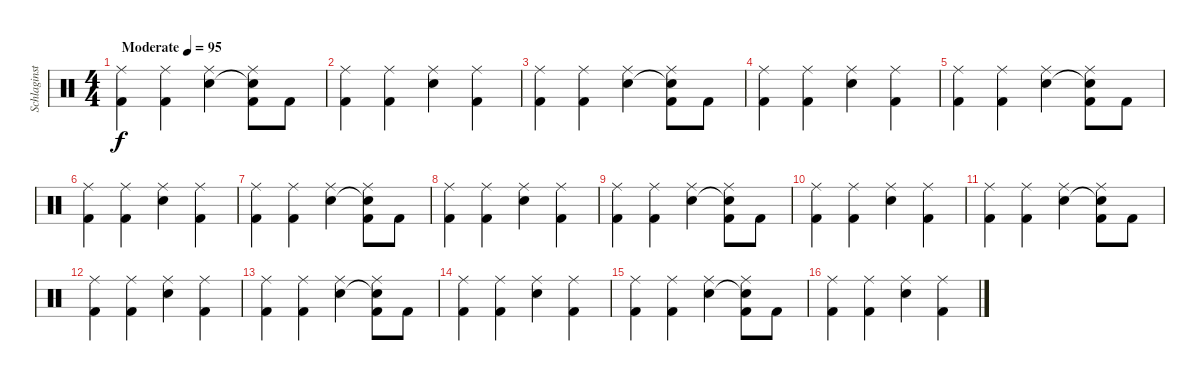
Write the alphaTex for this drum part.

\track ("Schlaginstrumente - Auswahl" "Schlaginst") {instrument percussion}
\staff {score}
\articulation defaults
\ts (4 4)
\tempo (95 "Moderate")
\clef neutral
\ks c
("Ride (middle)" "Kick (hit) 2").4{dy f} ("Ride (middle)" "Kick (hit) 2").4 ("Ride (middle)" "Electric Snare (hit)").4 ("Ride (middle)" "Snare (hit)"{t} "Kick (hit) 2").8 "Kick (hit) 2".8 |
("Ride (middle)" "Kick (hit) 2").4 ("Ride (middle)" "Kick (hit) 2").4 ("Ride (middle)" "Electric Snare (hit)").4 ("Ride (middle)" "Kick (hit) 2").4 |
("Ride (middle)" "Kick (hit) 2").4 ("Ride (middle)" "Kick (hit) 2").4 ("Ride (middle)" "Electric Snare (hit)").4 ("Ride (middle)" "Snare (hit)"{t} "Kick (hit) 2").8 "Kick (hit) 2".8 |
("Ride (middle)" "Kick (hit) 2").4 ("Ride (middle)" "Kick (hit) 2").4 ("Ride (middle)" "Electric Snare (hit)").4 ("Ride (middle)" "Kick (hit) 2").4 |
("Ride (middle)" "Kick (hit) 2").4 ("Ride (middle)" "Kick (hit) 2").4 ("Ride (middle)" "Electric Snare (hit)").4 ("Ride (middle)" "Snare (hit)"{t} "Kick (hit) 2").8 "Kick (hit) 2".8 |
("Ride (middle)" "Kick (hit) 2").4 ("Ride (middle)" "Kick (hit) 2").4 ("Ride (middle)" "Electric Snare (hit)").4 ("Ride (middle)" "Kick (hit) 2").4 |
("Ride (middle)" "Kick (hit) 2").4 ("Ride (middle)" "Kick (hit) 2").4 ("Ride (middle)" "Electric Snare (hit)").4 ("Ride (middle)" "Snare (hit)"{t} "Kick (hit) 2").8 "Kick (hit) 2".8 |
("Ride (middle)" "Kick (hit) 2").4 ("Ride (middle)" "Kick (hit) 2").4 ("Ride (middle)" "Electric Snare (hit)").4 ("Ride (middle)" "Kick (hit) 2").4 |
("Ride (middle)" "Kick (hit) 2").4 ("Ride (middle)" "Kick (hit) 2").4 ("Ride (middle)" "Electric Snare (hit)").4 ("Ride (middle)" "Snare (hit)"{t} "Kick (hit) 2").8 "Kick (hit) 2".8 |
("Ride (middle)" "Kick (hit) 2").4 ("Ride (middle)" "Kick (hit) 2").4 ("Ride (middle)" "Electric Snare (hit)").4 ("Ride (middle)" "Kick (hit) 2").4 |
("Ride (middle)" "Kick (hit) 2").4 ("Ride (middle)" "Kick (hit) 2").4 ("Ride (middle)" "Electric Snare (hit)").4 ("Ride (middle)" "Snare (hit)"{t} "Kick (hit) 2").8 "Kick (hit) 2".8 |
("Ride (middle)" "Kick (hit) 2").4 ("Ride (middle)" "Kick (hit) 2").4 ("Ride (middle)" "Electric Snare (hit)").4 ("Ride (middle)" "Kick (hit) 2").4 |
("Ride (middle)" "Kick (hit) 2").4 ("Ride (middle)" "Kick (hit) 2").4 ("Ride (middle)" "Electric Snare (hit)").4 ("Ride (middle)" "Snare (hit)"{t} "Kick (hit) 2").8 "Kick (hit) 2".8 |
("Ride (middle)" "Kick (hit) 2").4 ("Ride (middle)" "Kick (hit) 2").4 ("Ride (middle)" "Electric Snare (hit)").4 ("Ride (middle)" "Kick (hit) 2").4 |
("Ride (middle)" "Kick (hit) 2").4 ("Ride (middle)" "Kick (hit) 2").4 ("Ride (middle)" "Electric Snare (hit)").4 ("Ride (middle)" "Snare (hit)"{t} "Kick (hit) 2").8 "Kick (hit) 2".8 |
("Ride (middle)" "Kick (hit) 2").4 ("Ride (middle)" "Kick (hit) 2").4 ("Ride (middle)" "Electric Snare (hit)").4 ("Ride (middle)" "Kick (hit) 2").4
